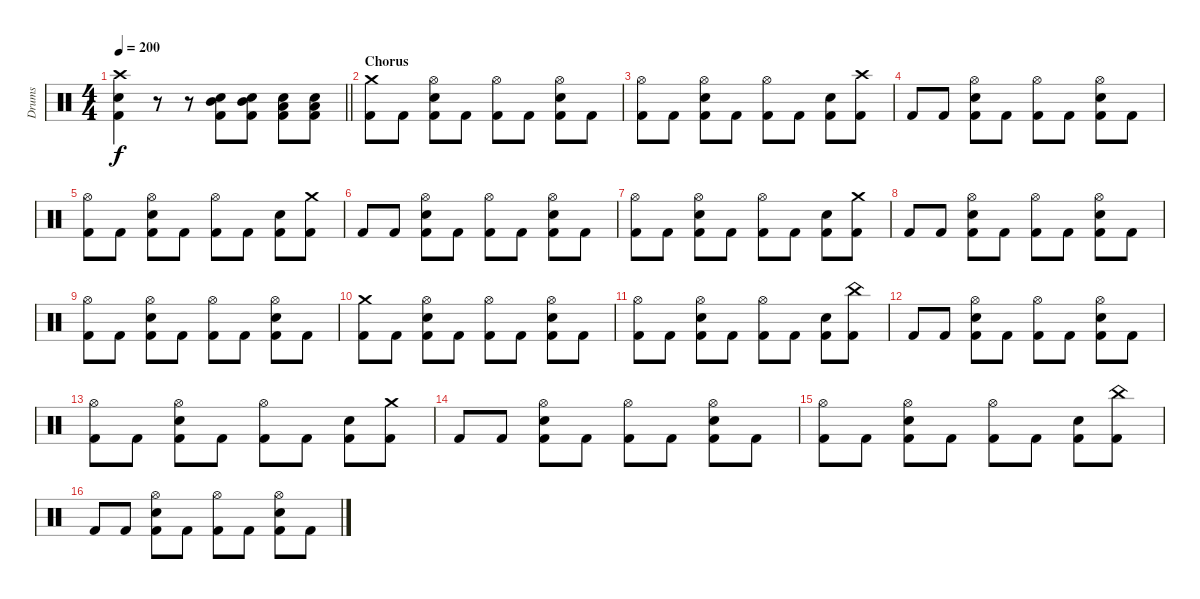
\track ("Drums" "Drums") {instrument percussion}
\staff {score}
\articulation defaults
\ts (4 4)
\tempo 200
\clef neutral
\barLineRight lightlight
\ks c
("Crash high (hit)" "Snare (hit) 2" "Kick (hit) 2").4{dy f} r.8 r.8 ("Mid Tom (hit)" "Snare (hit) 2" "Kick (hit) 2").8 ("Mid Tom (hit)" "Snare (hit) 2" "Kick (hit) 2").8 ("Low Tom (hit)" "Snare (hit) 2" "Kick (hit) 2").8 ("Low Tom (hit)" "Snare (hit) 2" "Kick (hit) 2").8 |
\section ("" "Chorus")
("Crash medium (hit)" "Kick (hit) 2").8 "Kick (hit) 2".8 ("Hi-Hat (open)" "Snare (hit) 2" "Kick (hit) 2").8 "Kick (hit) 2".8 ("Hi-Hat (open)" "Kick (hit) 2").8 "Kick (hit) 2".8 ("Hi-Hat (open)" "Snare (hit) 2" "Kick (hit) 2").8 "Kick (hit) 2".8 |
("Hi-Hat (open)" "Kick (hit) 2").8 "Kick (hit) 2".8 ("Hi-Hat (open)" "Snare (hit) 2" "Kick (hit) 2").8 "Kick (hit) 2".8 ("Hi-Hat (open)" "Kick (hit) 2").8 "Kick (hit) 2".8 ("Snare (hit) 2" "Kick (hit) 2").8 ("Crash high (hit)" "Kick (hit) 2").8 |
"Kick (hit) 2".8 "Kick (hit) 2".8 ("Hi-Hat (open)" "Snare (hit) 2" "Kick (hit) 2").8 "Kick (hit) 2".8 ("Hi-Hat (open)" "Kick (hit) 2").8 "Kick (hit) 2".8 ("Hi-Hat (open)" "Snare (hit) 2" "Kick (hit) 2").8 "Kick (hit) 2".8 |
("Hi-Hat (open)" "Kick (hit) 2").8 "Kick (hit) 2".8 ("Hi-Hat (open)" "Snare (hit) 2" "Kick (hit) 2").8 "Kick (hit) 2".8 ("Hi-Hat (open)" "Kick (hit) 2").8 "Kick (hit) 2".8 ("Snare (hit) 2" "Kick (hit) 2").8 ("Crash medium (hit)" "Kick (hit) 2").8 |
"Kick (hit) 2".8 "Kick (hit) 2".8 ("Hi-Hat (open)" "Snare (hit) 2" "Kick (hit) 2").8 "Kick (hit) 2".8 ("Hi-Hat (open)" "Kick (hit) 2").8 "Kick (hit) 2".8 ("Hi-Hat (open)" "Snare (hit) 2" "Kick (hit) 2").8 "Kick (hit) 2".8 |
("Hi-Hat (open)" "Kick (hit) 2").8 "Kick (hit) 2".8 ("Hi-Hat (open)" "Snare (hit) 2" "Kick (hit) 2").8 "Kick (hit) 2".8 ("Hi-Hat (open)" "Kick (hit) 2").8 "Kick (hit) 2".8 ("Snare (hit) 2" "Kick (hit) 2").8 ("Crash medium (hit)" "Kick (hit) 2").8 |
"Kick (hit) 2".8 "Kick (hit) 2".8 ("Hi-Hat (open)" "Snare (hit) 2" "Kick (hit) 2").8 "Kick (hit) 2".8 ("Hi-Hat (open)" "Kick (hit) 2").8 "Kick (hit) 2".8 ("Hi-Hat (open)" "Snare (hit) 2" "Kick (hit) 2").8 "Kick (hit) 2".8 |
("Hi-Hat (open)" "Kick (hit) 2").8 "Kick (hit) 2".8 ("Hi-Hat (open)" "Snare (hit) 2" "Kick (hit) 2").8 "Kick (hit) 2".8 ("Hi-Hat (open)" "Kick (hit) 2").8 "Kick (hit) 2".8 ("Hi-Hat (open)" "Snare (hit) 2" "Kick (hit) 2").8 "Kick (hit) 2".8 |
("Crash medium (hit)" "Kick (hit) 2").8 "Kick (hit) 2".8 ("Hi-Hat (open)" "Snare (hit) 2" "Kick (hit) 2").8 "Kick (hit) 2".8 ("Hi-Hat (open)" "Kick (hit) 2").8 "Kick (hit) 2".8 ("Hi-Hat (open)" "Snare (hit) 2" "Kick (hit) 2").8 "Kick (hit) 2".8 |
("Hi-Hat (open)" "Kick (hit) 2").8 "Kick (hit) 2".8 ("Hi-Hat (open)" "Snare (hit) 2" "Kick (hit) 2").8 "Kick (hit) 2".8 ("Hi-Hat (open)" "Kick (hit) 2").8 "Kick (hit) 2".8 ("Snare (hit) 2" "Kick (hit) 2").8 ("China (hit)" "Kick (hit) 2").8 |
"Kick (hit) 2".8 "Kick (hit) 2".8 ("Hi-Hat (open)" "Snare (hit) 2" "Kick (hit) 2").8 "Kick (hit) 2".8 ("Hi-Hat (open)" "Kick (hit) 2").8 "Kick (hit) 2".8 ("Hi-Hat (open)" "Snare (hit) 2" "Kick (hit) 2").8 "Kick (hit) 2".8 |
("Hi-Hat (open)" "Kick (hit) 2").8 "Kick (hit) 2".8 ("Hi-Hat (open)" "Snare (hit) 2" "Kick (hit) 2").8 "Kick (hit) 2".8 ("Hi-Hat (open)" "Kick (hit) 2").8 "Kick (hit) 2".8 ("Snare (hit) 2" "Kick (hit) 2").8 ("Crash medium (hit)" "Kick (hit) 2").8 |
"Kick (hit) 2".8 "Kick (hit) 2".8 ("Hi-Hat (open)" "Snare (hit) 2" "Kick (hit) 2").8 "Kick (hit) 2".8 ("Hi-Hat (open)" "Kick (hit) 2").8 "Kick (hit) 2".8 ("Hi-Hat (open)" "Snare (hit) 2" "Kick (hit) 2").8 "Kick (hit) 2".8 |
("Hi-Hat (open)" "Kick (hit) 2").8 "Kick (hit) 2".8 ("Hi-Hat (open)" "Snare (hit) 2" "Kick (hit) 2").8 "Kick (hit) 2".8 ("Hi-Hat (open)" "Kick (hit) 2").8 "Kick (hit) 2".8 ("Snare (hit) 2" "Kick (hit) 2").8 ("China (hit)" "Kick (hit) 2").8 |
"Kick (hit) 2".8 "Kick (hit) 2".8 ("Hi-Hat (open)" "Snare (hit) 2" "Kick (hit) 2").8 "Kick (hit) 2".8 ("Hi-Hat (open)" "Kick (hit) 2").8 "Kick (hit) 2".8 ("Hi-Hat (open)" "Snare (hit) 2" "Kick (hit) 2").8 "Kick (hit) 2".8
